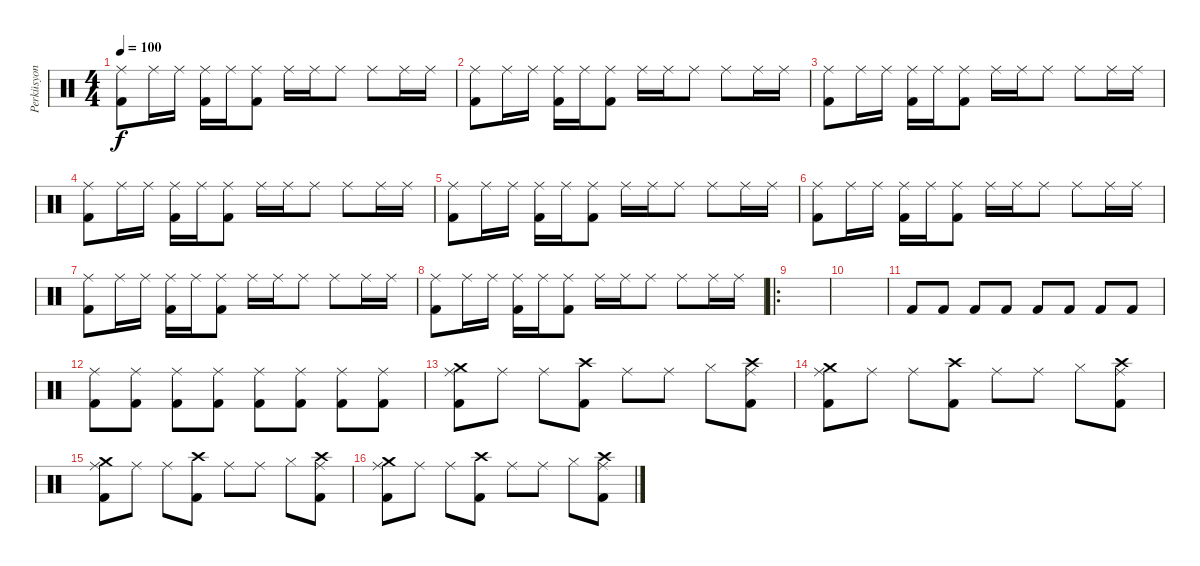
\track ("Perküsyon" "Perküsyon") {instrument percussion}
\staff {score}
\articulation defaults
\ts (4 4)
\tempo 100
\clef neutral
\ks c
("Ride (middle)" "Kick (hit) 2").8{dy f} "Ride (middle)".16 "Ride (middle)".16 ("Ride (middle)" "Kick (hit) 2").16 "Ride (middle)".16 ("Kick (hit) 2" "Ride (middle)").8 "Ride (middle)".16 "Ride (middle)".16 "Ride (middle)".8 "Ride (middle)".8 "Ride (middle)".16 "Ride (middle)".16 |
("Ride (middle)" "Kick (hit) 2").8 "Ride (middle)".16 "Ride (middle)".16 ("Ride (middle)" "Kick (hit) 2").16 "Ride (middle)".16 ("Kick (hit) 2" "Ride (middle)").8 "Ride (middle)".16 "Ride (middle)".16 "Ride (middle)".8 "Ride (middle)".8 "Ride (middle)".16 "Ride (middle)".16 |
("Ride (middle)" "Kick (hit) 2").8 "Ride (middle)".16 "Ride (middle)".16 ("Ride (middle)" "Kick (hit) 2").16 "Ride (middle)".16 ("Kick (hit) 2" "Ride (middle)").8 "Ride (middle)".16 "Ride (middle)".16 "Ride (middle)".8 "Ride (middle)".8 "Ride (middle)".16 "Ride (middle)".16 |
("Ride (middle)" "Kick (hit) 2").8 "Ride (middle)".16 "Ride (middle)".16 ("Ride (middle)" "Kick (hit) 2").16 "Ride (middle)".16 ("Kick (hit) 2" "Ride (middle)").8 "Ride (middle)".16 "Ride (middle)".16 "Ride (middle)".8 "Ride (middle)".8 "Ride (middle)".16 "Ride (middle)".16 |
("Ride (middle)" "Kick (hit) 2").8 "Ride (middle)".16 "Ride (middle)".16 ("Ride (middle)" "Kick (hit) 2").16 "Ride (middle)".16 ("Kick (hit) 2" "Ride (middle)").8 "Ride (middle)".16 "Ride (middle)".16 "Ride (middle)".8 "Ride (middle)".8 "Ride (middle)".16 "Ride (middle)".16 |
("Ride (middle)" "Kick (hit) 2").8 "Ride (middle)".16 "Ride (middle)".16 ("Ride (middle)" "Kick (hit) 2").16 "Ride (middle)".16 ("Kick (hit) 2" "Ride (middle)").8 "Ride (middle)".16 "Ride (middle)".16 "Ride (middle)".8 "Ride (middle)".8 "Ride (middle)".16 "Ride (middle)".16 |
("Ride (middle)" "Kick (hit) 2").8 "Ride (middle)".16 "Ride (middle)".16 ("Ride (middle)" "Kick (hit) 2").16 "Ride (middle)".16 ("Kick (hit) 2" "Ride (middle)").8 "Ride (middle)".16 "Ride (middle)".16 "Ride (middle)".8 "Ride (middle)".8 "Ride (middle)".16 "Ride (middle)".16 |
("Ride (middle)" "Kick (hit) 2").8 "Ride (middle)".16 "Ride (middle)".16 ("Ride (middle)" "Kick (hit) 2").16 "Ride (middle)".16 ("Kick (hit) 2" "Ride (middle)").8 "Ride (middle)".16 "Ride (middle)".16 "Ride (middle)".8 "Ride (middle)".8 "Ride (middle)".16 "Ride (middle)".16 |
\ro
|
|
"Kick (hit) 2".8 "Kick (hit) 2".8 "Kick (hit) 2".8 "Kick (hit) 2".8 "Kick (hit) 2".8 "Kick (hit) 2".8 "Kick (hit) 2".8 "Kick (hit) 2".8 |
("Ride (middle)" "Kick (hit) 2").8 ("Ride (middle)" "Kick (hit) 2").8 ("Ride (middle)" "Kick (hit) 2").8 ("Ride (middle)" "Kick (hit) 2").8 ("Ride (middle)" "Kick (hit) 2").8 ("Ride (middle)" "Kick (hit) 2").8 ("Ride (middle)" "Kick (hit) 2").8 ("Ride (middle)" "Kick (hit) 2").8 |
("Ride (middle)" "Crash medium (hit)" "Kick (hit) 2").8 "Ride (middle)".8 "Ride (middle)".8 ("Kick (hit) 2" "Crash high (hit)").8 "Ride (middle)".8 "Ride (middle)".8 "Hi-Hat (closed)".8 ("Kick (hit) 2" "Crash high (hit)" "Ride (middle)").8 |
("Ride (middle)" "Crash medium (hit)" "Kick (hit) 2").8 "Ride (middle)".8 "Ride (middle)".8 ("Kick (hit) 2" "Crash high (hit)").8 "Ride (middle)".8 "Ride (middle)".8 "Hi-Hat (closed)".8 ("Kick (hit) 2" "Crash high (hit)" "Ride (middle)").8 |
("Ride (middle)" "Crash medium (hit)" "Kick (hit) 2").8 "Ride (middle)".8 "Ride (middle)".8 ("Kick (hit) 2" "Crash high (hit)").8 "Ride (middle)".8 "Ride (middle)".8 "Hi-Hat (closed)".8 ("Kick (hit) 2" "Crash high (hit)" "Ride (middle)").8 |
("Ride (middle)" "Crash medium (hit)" "Kick (hit) 2").8 "Ride (middle)".8 "Ride (middle)".8 ("Kick (hit) 2" "Crash high (hit)").8 "Ride (middle)".8 "Ride (middle)".8 "Hi-Hat (closed)".8 ("Kick (hit) 2" "Crash high (hit)" "Ride (middle)").8
